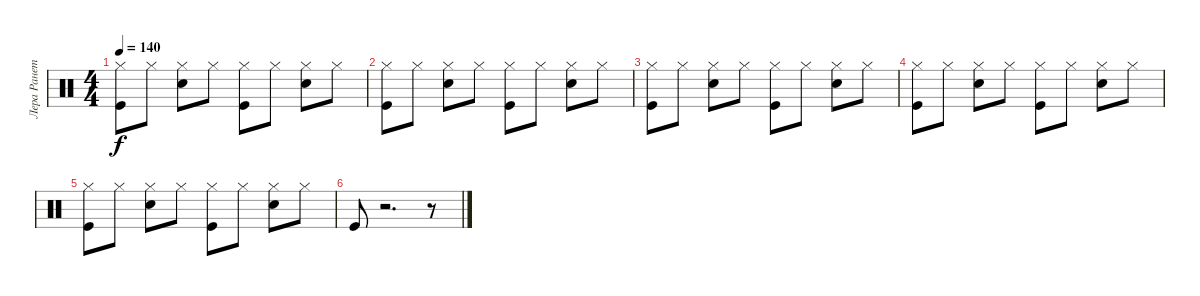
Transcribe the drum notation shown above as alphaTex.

\track ("Лера Ранетка" "Лера Ранет") {instrument percussion}
\staff {score}
\articulation defaults
\ts (4 4)
\tempo 140
\clef neutral
\ks c
("Hi-Hat (closed)" "Kick (hit)").8{dy f} "Hi-Hat (closed)".8 ("Hi-Hat (closed)" "Electric Snare (hit)").8 "Hi-Hat (closed)".8 ("Hi-Hat (closed)" "Kick (hit)").8 "Hi-Hat (closed)".8 ("Hi-Hat (closed)" "Electric Snare (hit)").8 "Hi-Hat (closed)".8 |
("Hi-Hat (closed)" "Kick (hit)").8 "Hi-Hat (closed)".8 ("Hi-Hat (closed)" "Electric Snare (hit)").8 "Hi-Hat (closed)".8 ("Hi-Hat (closed)" "Kick (hit)").8 "Hi-Hat (closed)".8 ("Hi-Hat (closed)" "Electric Snare (hit)").8 "Hi-Hat (closed)".8 |
("Hi-Hat (closed)" "Kick (hit)").8 "Hi-Hat (closed)".8 ("Hi-Hat (closed)" "Electric Snare (hit)").8 "Hi-Hat (closed)".8 ("Hi-Hat (closed)" "Kick (hit)").8 "Hi-Hat (closed)".8 ("Hi-Hat (closed)" "Electric Snare (hit)").8 "Hi-Hat (closed)".8 |
("Hi-Hat (closed)" "Kick (hit)").8 "Hi-Hat (closed)".8 ("Hi-Hat (closed)" "Electric Snare (hit)").8 "Hi-Hat (closed)".8 ("Hi-Hat (closed)" "Kick (hit)").8 "Hi-Hat (closed)".8 ("Hi-Hat (closed)" "Electric Snare (hit)").8 "Hi-Hat (closed)".8 |
("Hi-Hat (closed)" "Kick (hit)").8 "Hi-Hat (closed)".8 ("Hi-Hat (closed)" "Electric Snare (hit)").8 "Hi-Hat (closed)".8 ("Hi-Hat (closed)" "Kick (hit)").8 "Hi-Hat (closed)".8 ("Hi-Hat (closed)" "Electric Snare (hit)").8 "Hi-Hat (closed)".8 |
"Kick (hit)".8 r.2{d} r.8
